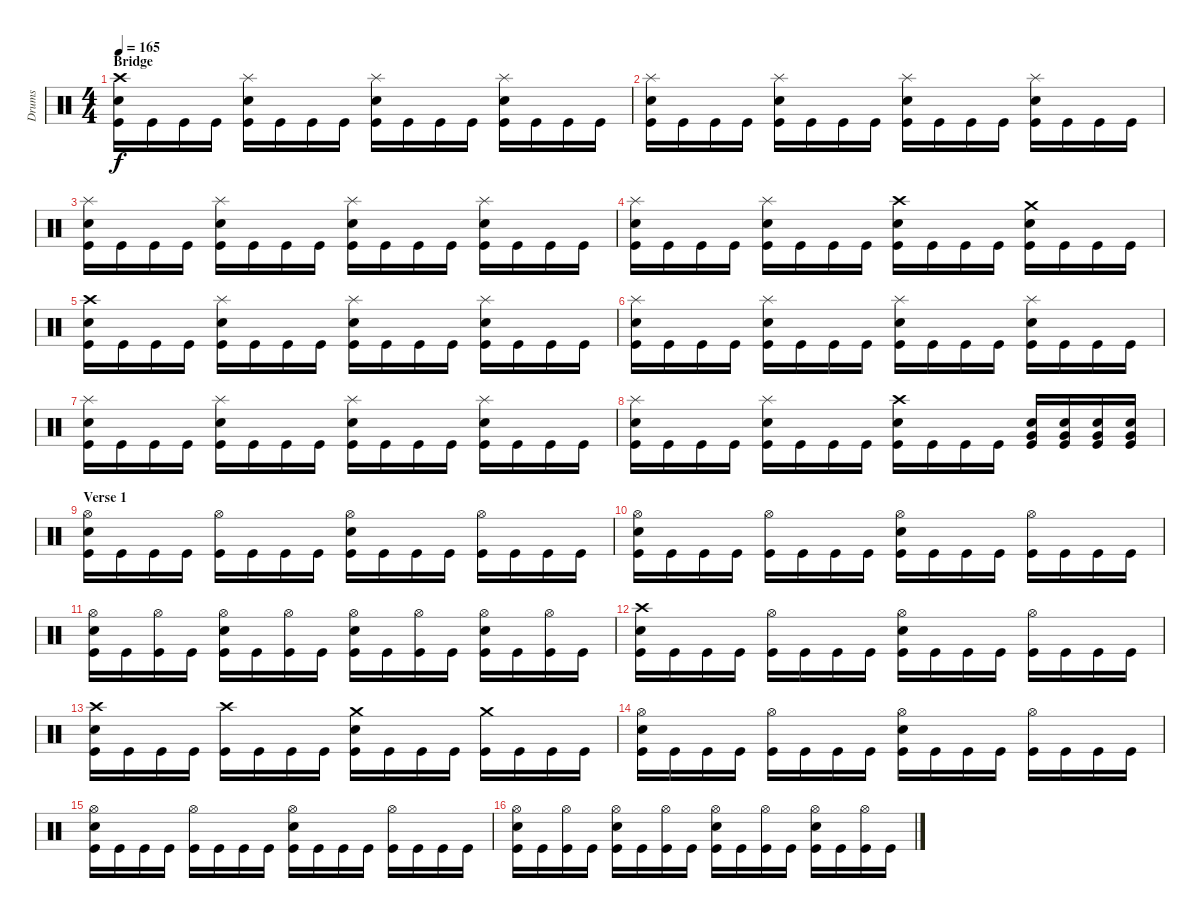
\track ("Drums" "Drums") {instrument percussion}
\staff {score}
\articulation defaults
\ts (4 4)
\section ("" "Bridge")
\tempo 165
\clef neutral
\ks c
("Crash high (hit)" "Electric Snare (hit)" "Kick (hit)").16{dy f} "Kick (hit)".16 "Kick (hit)".16 "Kick (hit)".16 ("Splash (hit)" "Electric Snare (hit)" "Kick (hit)").16 "Kick (hit)".16 "Kick (hit)".16 "Kick (hit)".16 ("Splash (hit)" "Electric Snare (hit)" "Kick (hit)").16 "Kick (hit)".16 "Kick (hit)".16 "Kick (hit)".16 ("Splash (hit)" "Electric Snare (hit)" "Kick (hit)").16 "Kick (hit)".16 "Kick (hit)".16 "Kick (hit)".16 |
("Splash (hit)" "Electric Snare (hit)" "Kick (hit)").16 "Kick (hit)".16 "Kick (hit)".16 "Kick (hit)".16 ("Splash (hit)" "Electric Snare (hit)" "Kick (hit)").16 "Kick (hit)".16 "Kick (hit)".16 "Kick (hit)".16 ("Splash (hit)" "Electric Snare (hit)" "Kick (hit)").16 "Kick (hit)".16 "Kick (hit)".16 "Kick (hit)".16 ("Splash (hit)" "Electric Snare (hit)" "Kick (hit)").16 "Kick (hit)".16 "Kick (hit)".16 "Kick (hit)".16 |
("Splash (hit)" "Electric Snare (hit)" "Kick (hit)").16 "Kick (hit)".16 "Kick (hit)".16 "Kick (hit)".16 ("Splash (hit)" "Electric Snare (hit)" "Kick (hit)").16 "Kick (hit)".16 "Kick (hit)".16 "Kick (hit)".16 ("Splash (hit)" "Electric Snare (hit)" "Kick (hit)").16 "Kick (hit)".16 "Kick (hit)".16 "Kick (hit)".16 ("Splash (hit)" "Electric Snare (hit)" "Kick (hit)").16 "Kick (hit)".16 "Kick (hit)".16 "Kick (hit)".16 |
("Splash (hit)" "Electric Snare (hit)" "Kick (hit)").16 "Kick (hit)".16 "Kick (hit)".16 "Kick (hit)".16 ("Splash (hit)" "Electric Snare (hit)" "Kick (hit)").16 "Kick (hit)".16 "Kick (hit)".16 "Kick (hit)".16 ("Crash high (hit)" "Electric Snare (hit)" "Kick (hit)").16 "Kick (hit)".16 "Kick (hit)".16 "Kick (hit)".16 ("Crash medium (hit)" "Electric Snare (hit)" "Kick (hit)").16 "Kick (hit)".16 "Kick (hit)".16 "Kick (hit)".16 |
("Crash high (hit)" "Electric Snare (hit)" "Kick (hit)").16 "Kick (hit)".16 "Kick (hit)".16 "Kick (hit)".16 ("Splash (hit)" "Electric Snare (hit)" "Kick (hit)").16 "Kick (hit)".16 "Kick (hit)".16 "Kick (hit)".16 ("Splash (hit)" "Electric Snare (hit)" "Kick (hit)").16 "Kick (hit)".16 "Kick (hit)".16 "Kick (hit)".16 ("Splash (hit)" "Electric Snare (hit)" "Kick (hit)").16 "Kick (hit)".16 "Kick (hit)".16 "Kick (hit)".16 |
("Splash (hit)" "Electric Snare (hit)" "Kick (hit)").16 "Kick (hit)".16 "Kick (hit)".16 "Kick (hit)".16 ("Splash (hit)" "Electric Snare (hit)" "Kick (hit)").16 "Kick (hit)".16 "Kick (hit)".16 "Kick (hit)".16 ("Splash (hit)" "Electric Snare (hit)" "Kick (hit)").16 "Kick (hit)".16 "Kick (hit)".16 "Kick (hit)".16 ("Splash (hit)" "Electric Snare (hit)" "Kick (hit)").16 "Kick (hit)".16 "Kick (hit)".16 "Kick (hit)".16 |
("Splash (hit)" "Electric Snare (hit)" "Kick (hit)").16 "Kick (hit)".16 "Kick (hit)".16 "Kick (hit)".16 ("Splash (hit)" "Electric Snare (hit)" "Kick (hit)").16 "Kick (hit)".16 "Kick (hit)".16 "Kick (hit)".16 ("Splash (hit)" "Electric Snare (hit)" "Kick (hit)").16 "Kick (hit)".16 "Kick (hit)".16 "Kick (hit)".16 ("Splash (hit)" "Electric Snare (hit)" "Kick (hit)").16 "Kick (hit)".16 "Kick (hit)".16 "Kick (hit)".16 |
("Splash (hit)" "Electric Snare (hit)" "Kick (hit)").16 "Kick (hit)".16 "Kick (hit)".16 "Kick (hit)".16 ("Splash (hit)" "Electric Snare (hit)" "Kick (hit)").16 "Kick (hit)".16 "Kick (hit)".16 "Kick (hit)".16 ("Crash high (hit)" "Electric Snare (hit)" "Kick (hit)").16 "Kick (hit)".16 "Kick (hit)".16 "Kick (hit)".16 ("Very Low Tom (hit)" "Electric Snare (hit)" "Kick (hit)").16 ("Very Low Tom (hit)" "Electric Snare (hit)" "Kick (hit)").16 ("Very Low Tom (hit)" "Electric Snare (hit)" "Kick (hit)").16 ("Very Low Tom (hit)" "Electric Snare (hit)" "Kick (hit)").16 |
\section ("" "Verse 1")
("Hi-Hat (open)" "Electric Snare (hit)" "Kick (hit)").16 "Kick (hit)".16 "Kick (hit)".16 "Kick (hit)".16 ("Hi-Hat (open)" "Kick (hit)").16 "Kick (hit)".16 "Kick (hit)".16 "Kick (hit)".16 ("Hi-Hat (open)" "Electric Snare (hit)" "Kick (hit)").16 "Kick (hit)".16 "Kick (hit)".16 "Kick (hit)".16 ("Hi-Hat (open)" "Kick (hit)").16 "Kick (hit)".16 "Kick (hit)".16 "Kick (hit)".16 |
("Hi-Hat (open)" "Electric Snare (hit)" "Kick (hit)").16 "Kick (hit)".16 "Kick (hit)".16 "Kick (hit)".16 ("Hi-Hat (open)" "Kick (hit)").16 "Kick (hit)".16 "Kick (hit)".16 "Kick (hit)".16 ("Hi-Hat (open)" "Electric Snare (hit)" "Kick (hit)").16 "Kick (hit)".16 "Kick (hit)".16 "Kick (hit)".16 ("Hi-Hat (open)" "Kick (hit)").16 "Kick (hit)".16 "Kick (hit)".16 "Kick (hit)".16 |
("Hi-Hat (open)" "Electric Snare (hit)" "Kick (hit)").16 "Kick (hit)".16 ("Hi-Hat (open)" "Kick (hit)").16 "Kick (hit)".16 ("Hi-Hat (open)" "Electric Snare (hit)" "Kick (hit)").16 "Kick (hit)".16 ("Hi-Hat (open)" "Kick (hit)").16 "Kick (hit)".16 ("Hi-Hat (open)" "Electric Snare (hit)" "Kick (hit)").16 "Kick (hit)".16 ("Hi-Hat (open)" "Kick (hit)").16 "Kick (hit)".16 ("Hi-Hat (open)" "Electric Snare (hit)" "Kick (hit)").16 "Kick (hit)".16 ("Hi-Hat (open)" "Kick (hit)").16 "Kick (hit)".16 |
("Crash high (hit)" "Electric Snare (hit)" "Kick (hit)").16 "Kick (hit)".16 "Kick (hit)".16 "Kick (hit)".16 ("Hi-Hat (open)" "Kick (hit)").16 "Kick (hit)".16 "Kick (hit)".16 "Kick (hit)".16 ("Hi-Hat (open)" "Electric Snare (hit)" "Kick (hit)").16 "Kick (hit)".16 "Kick (hit)".16 "Kick (hit)".16 ("Hi-Hat (open)" "Kick (hit)").16 "Kick (hit)".16 "Kick (hit)".16 "Kick (hit)".16 |
("Crash high (hit)" "Electric Snare (hit)" "Kick (hit)").16 "Kick (hit)".16 "Kick (hit)".16 "Kick (hit)".16 ("Crash high (hit)" "Kick (hit)").16 "Kick (hit)".16 "Kick (hit)".16 "Kick (hit)".16 ("Crash medium (hit)" "Electric Snare (hit)" "Kick (hit)").16 "Kick (hit)".16 "Kick (hit)".16 "Kick (hit)".16 ("Crash medium (hit)" "Kick (hit)").16 "Kick (hit)".16 "Kick (hit)".16 "Kick (hit)".16 |
("Hi-Hat (open)" "Electric Snare (hit)" "Kick (hit)").16 "Kick (hit)".16 "Kick (hit)".16 "Kick (hit)".16 ("Hi-Hat (open)" "Kick (hit)").16 "Kick (hit)".16 "Kick (hit)".16 "Kick (hit)".16 ("Hi-Hat (open)" "Electric Snare (hit)" "Kick (hit)").16 "Kick (hit)".16 "Kick (hit)".16 "Kick (hit)".16 ("Hi-Hat (open)" "Kick (hit)").16 "Kick (hit)".16 "Kick (hit)".16 "Kick (hit)".16 |
("Hi-Hat (open)" "Electric Snare (hit)" "Kick (hit)").16 "Kick (hit)".16 "Kick (hit)".16 "Kick (hit)".16 ("Hi-Hat (open)" "Kick (hit)").16 "Kick (hit)".16 "Kick (hit)".16 "Kick (hit)".16 ("Hi-Hat (open)" "Electric Snare (hit)" "Kick (hit)").16 "Kick (hit)".16 "Kick (hit)".16 "Kick (hit)".16 ("Hi-Hat (open)" "Kick (hit)").16 "Kick (hit)".16 "Kick (hit)".16 "Kick (hit)".16 |
("Hi-Hat (open)" "Electric Snare (hit)" "Kick (hit)").16 "Kick (hit)".16 ("Hi-Hat (open)" "Kick (hit)").16 "Kick (hit)".16 ("Hi-Hat (open)" "Electric Snare (hit)" "Kick (hit)").16 "Kick (hit)".16 ("Hi-Hat (open)" "Kick (hit)").16 "Kick (hit)".16 ("Hi-Hat (open)" "Electric Snare (hit)" "Kick (hit)").16 "Kick (hit)".16 ("Hi-Hat (open)" "Kick (hit)").16 "Kick (hit)".16 ("Hi-Hat (open)" "Electric Snare (hit)" "Kick (hit)").16 "Kick (hit)".16 ("Hi-Hat (open)" "Kick (hit)").16 "Kick (hit)".16
